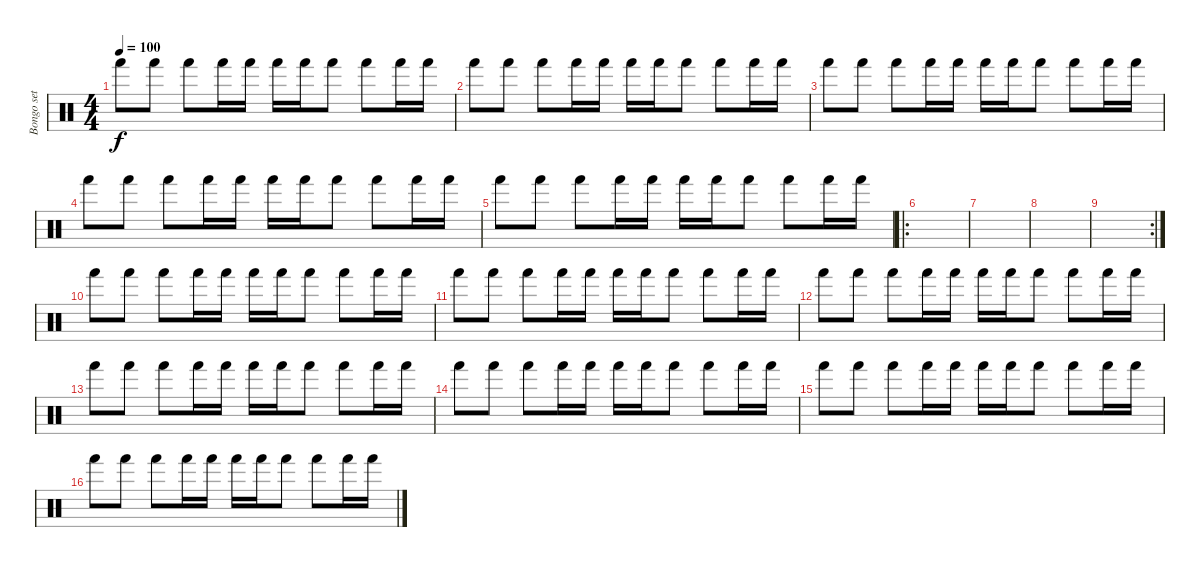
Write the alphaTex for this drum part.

\track ("Bongo set (for fill)" "Bongo set ") {instrument percussion}
\staff {score}
\articulation defaults
\ts (4 4)
\tempo 100
\clef neutral
\ks c "Hand (hit)".8{dy f} "Hand (hit)".8 "Hand (hit)".8 "Hand (hit)".16 "Hand (hit)".16 "Hand (hit)".16 "Hand (hit)".16 "Hand (hit)".8 "Hand (hit)".8 "Hand (hit)".16 "Hand (hit)".16
|
"Hand (hit)".8 "Hand (hit)".8 "Hand (hit)".8 "Hand (hit)".16 "Hand (hit)".16 "Hand (hit)".16 "Hand (hit)".16 "Hand (hit)".8 "Hand (hit)".8 "Hand (hit)".16 "Hand (hit)".16 |
"Hand (hit)".8 "Hand (hit)".8 "Hand (hit)".8 "Hand (hit)".16 "Hand (hit)".16 "Hand (hit)".16 "Hand (hit)".16 "Hand (hit)".8 "Hand (hit)".8 "Hand (hit)".16 "Hand (hit)".16 |
"Hand (hit)".8 "Hand (hit)".8 "Hand (hit)".8 "Hand (hit)".16 "Hand (hit)".16 "Hand (hit)".16 "Hand (hit)".16 "Hand (hit)".8 "Hand (hit)".8 "Hand (hit)".16 "Hand (hit)".16 |
"Hand (hit)".8 "Hand (hit)".8 "Hand (hit)".8 "Hand (hit)".16 "Hand (hit)".16 "Hand (hit)".16 "Hand (hit)".16 "Hand (hit)".8 "Hand (hit)".8 "Hand (hit)".16 "Hand (hit)".16 |
\ro
|
|
|
\rc 2
|
"Hand (hit)".8 "Hand (hit)".8 "Hand (hit)".8 "Hand (hit)".16 "Hand (hit)".16 "Hand (hit)".16 "Hand (hit)".16 "Hand (hit)".8 "Hand (hit)".8 "Hand (hit)".16 "Hand (hit)".16 |
"Hand (hit)".8 "Hand (hit)".8 "Hand (hit)".8 "Hand (hit)".16 "Hand (hit)".16 "Hand (hit)".16 "Hand (hit)".16 "Hand (hit)".8 "Hand (hit)".8 "Hand (hit)".16 "Hand (hit)".16 |
"Hand (hit)".8 "Hand (hit)".8 "Hand (hit)".8 "Hand (hit)".16 "Hand (hit)".16 "Hand (hit)".16 "Hand (hit)".16 "Hand (hit)".8 "Hand (hit)".8 "Hand (hit)".16 "Hand (hit)".16 |
"Hand (hit)".8 "Hand (hit)".8 "Hand (hit)".8 "Hand (hit)".16 "Hand (hit)".16 "Hand (hit)".16 "Hand (hit)".16 "Hand (hit)".8 "Hand (hit)".8 "Hand (hit)".16 "Hand (hit)".16 |
"Hand (hit)".8 "Hand (hit)".8 "Hand (hit)".8 "Hand (hit)".16 "Hand (hit)".16 "Hand (hit)".16 "Hand (hit)".16 "Hand (hit)".8 "Hand (hit)".8 "Hand (hit)".16 "Hand (hit)".16 |
"Hand (hit)".8 "Hand (hit)".8 "Hand (hit)".8 "Hand (hit)".16 "Hand (hit)".16 "Hand (hit)".16 "Hand (hit)".16 "Hand (hit)".8 "Hand (hit)".8 "Hand (hit)".16 "Hand (hit)".16 |
"Hand (hit)".8 "Hand (hit)".8 "Hand (hit)".8 "Hand (hit)".16 "Hand (hit)".16 "Hand (hit)".16 "Hand (hit)".16 "Hand (hit)".8 "Hand (hit)".8 "Hand (hit)".16 "Hand (hit)".16
